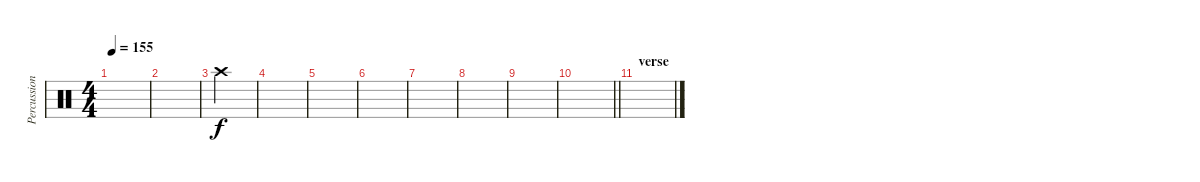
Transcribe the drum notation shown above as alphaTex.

\track ("Percussion" "Percussion") {instrument percussion}
\staff {score}
\articulation defaults
\ts (4 4)
\tempo 155
\clef neutral
\ks c
|
|
"Crash high (hit)".4 |
|
|
|
|
|
|
\barLineRight lightlight
|
\section ("" "verse")
